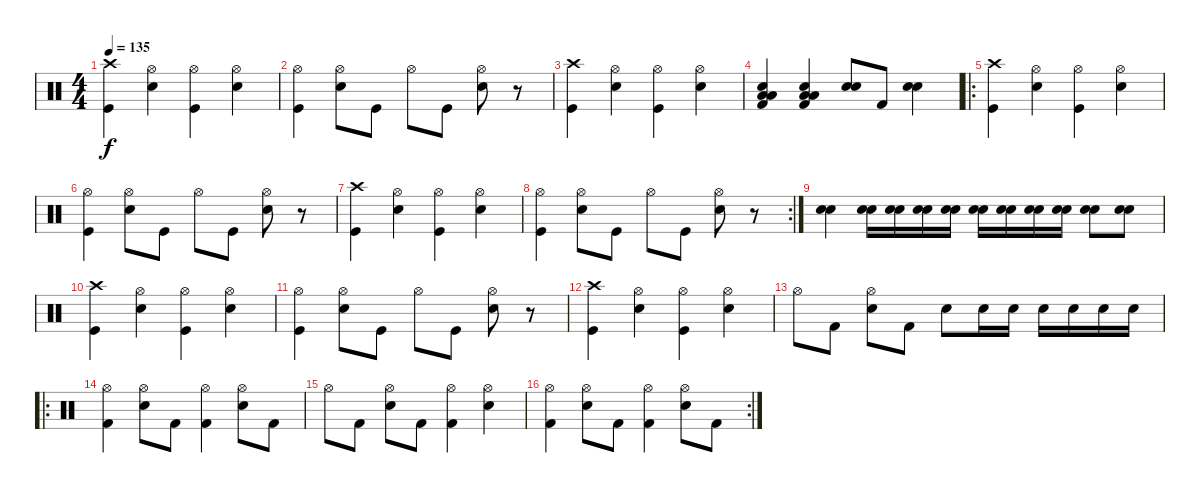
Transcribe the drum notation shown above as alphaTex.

\track "" {instrument percussion}
\staff {score}
\articulation defaults
\ts (4 4)
\tempo 135
\clef neutral
\ks c
("Kick (hit)" "Crash high (hit)").4{dy f} ("Snare (hit) 2" "Hi-Hat (open)").4 ("Hi-Hat (open)" "Kick (hit)").4 ("Snare (hit) 2" "Hi-Hat (open)").4 |
("Kick (hit)" "Hi-Hat (open)").4 ("Snare (hit) 2" "Hi-Hat (open)").8 "Kick (hit)".8 "Hi-Hat (open)".8 "Kick (hit)".8 ("Snare (hit) 2" "Hi-Hat (open)").8 r.8 |
("Kick (hit)" "Crash high (hit)").4 ("Snare (hit) 2" "Hi-Hat (open)").4 ("Hi-Hat (open)" "Kick (hit)").4 ("Snare (hit) 2" "Hi-Hat (open)").4 |
("Electric Snare (hit)" "Low Floor Tom (hit)" "Low Floor Tom (hit)" "Kick (hit) 2").4 ("Electric Snare (hit)" "Low Floor Tom (hit)" "Low Floor Tom (hit)" "Kick (hit) 2").4 ("Electric Snare (hit)" "Electric Snare (hit)").8 "Kick (hit) 2".8 ("Electric Snare (hit)" "Electric Snare (hit)").4 |
\ro
("Kick (hit)" "Crash high (hit)").4 ("Snare (hit) 2" "Hi-Hat (open)").4 ("Hi-Hat (open)" "Kick (hit)").4 ("Snare (hit) 2" "Hi-Hat (open)").4 |
("Kick (hit)" "Hi-Hat (open)").4 ("Snare (hit) 2" "Hi-Hat (open)").8 "Kick (hit)".8 "Hi-Hat (open)".8 "Kick (hit)".8 ("Snare (hit) 2" "Hi-Hat (open)").8 r.8 |
("Kick (hit)" "Crash high (hit)").4 ("Snare (hit) 2" "Hi-Hat (open)").4 ("Hi-Hat (open)" "Kick (hit)").4 ("Snare (hit) 2" "Hi-Hat (open)").4 |
\rc 2
("Kick (hit)" "Hi-Hat (open)").4 ("Snare (hit) 2" "Hi-Hat (open)").8 "Kick (hit)".8 "Hi-Hat (open)".8 "Kick (hit)".8 ("Snare (hit) 2" "Hi-Hat (open)").8 r.8 |
("Electric Snare (hit)" "Electric Snare (hit)").4 ("Electric Snare (hit)" "Electric Snare (hit)").16 ("Electric Snare (hit)" "Electric Snare (hit)").16 ("Electric Snare (hit)" "Electric Snare (hit)").16 ("Electric Snare (hit)" "Electric Snare (hit)").16 ("Electric Snare (hit)" "Electric Snare (hit)").16 ("Electric Snare (hit)" "Electric Snare (hit)").16 ("Electric Snare (hit)" "Electric Snare (hit)").16 ("Electric Snare (hit)" "Electric Snare (hit)").16 ("Electric Snare (hit)" "Electric Snare (hit)").8 ("Electric Snare (hit)" "Electric Snare (hit)").8 |
("Kick (hit)" "Crash high (hit)").4 ("Snare (hit) 2" "Hi-Hat (open)").4 ("Hi-Hat (open)" "Kick (hit)").4 ("Snare (hit) 2" "Hi-Hat (open)").4 |
("Kick (hit)" "Hi-Hat (open)").4 ("Snare (hit) 2" "Hi-Hat (open)").8 "Kick (hit)".8 "Hi-Hat (open)".8 "Kick (hit)".8 ("Snare (hit) 2" "Hi-Hat (open)").8 r.8 |
("Kick (hit)" "Crash high (hit)").4 ("Snare (hit) 2" "Hi-Hat (open)").4 ("Hi-Hat (open)" "Kick (hit)").4 ("Snare (hit) 2" "Hi-Hat (open)").4 |
"Hi-Hat (open)".8 "Kick (hit) 2".8 ("Hi-Hat (open)" "Electric Snare (hit)").8 "Kick (hit) 2".8 "Electric Snare (hit)".8 "Electric Snare (hit)".16 "Electric Snare (hit)".16 "Electric Snare (hit)".16 "Electric Snare (hit)".16 "Electric Snare (hit)".16 "Electric Snare (hit)".16 |
\ro
("Hi-Hat (open)" "Kick (hit) 2").4 ("Hi-Hat (open)" "Electric Snare (hit)").8 "Kick (hit) 2".8 ("Hi-Hat (open)" "Kick (hit) 2").4 ("Hi-Hat (open)" "Electric Snare (hit)").8 "Kick (hit) 2".8 |
"Hi-Hat (open)".8 "Kick (hit) 2".8 ("Hi-Hat (open)" "Electric Snare (hit)").8 "Kick (hit) 2".8 ("Hi-Hat (open)" "Kick (hit) 2").4 ("Hi-Hat (open)" "Electric Snare (hit)").4 |
\rc 2
("Hi-Hat (open)" "Kick (hit) 2").4 ("Hi-Hat (open)" "Electric Snare (hit)").8 "Kick (hit) 2".8 ("Hi-Hat (open)" "Kick (hit) 2").4 ("Hi-Hat (open)" "Electric Snare (hit)").8 "Kick (hit) 2".8
